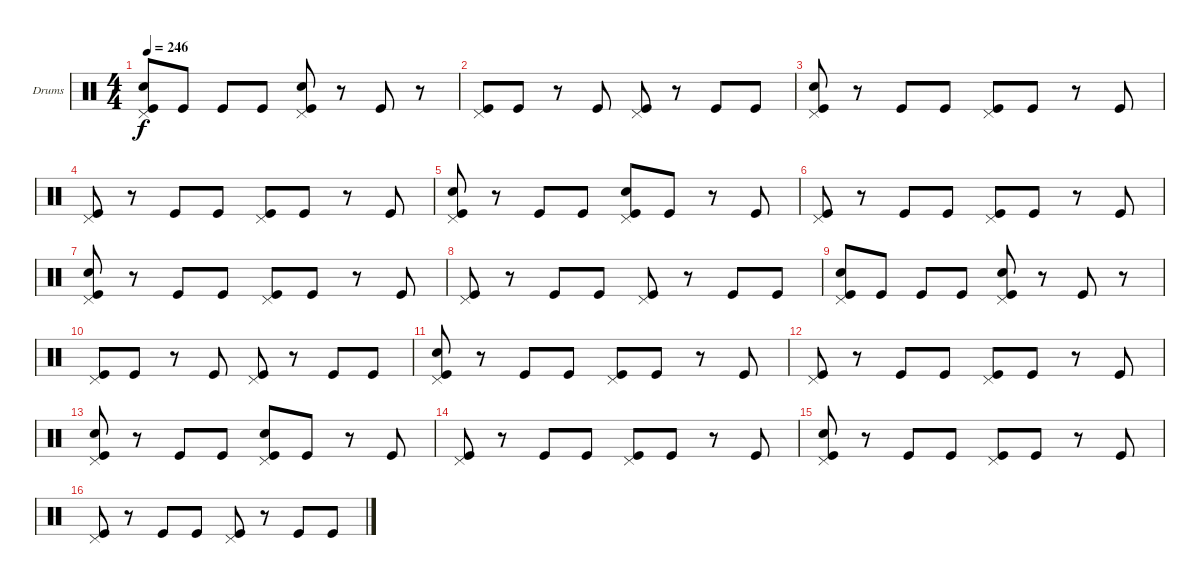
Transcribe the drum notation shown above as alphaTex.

\bracketExtendMode groupsimilarinstruments
\firstSystemTrackNameOrientation horizontal
\otherSystemsTrackNameOrientation horizontal
\track ("Drumkit" "Drums") {instrument percussion}
\staff {score}
\articulation defaults
\ts (4 4)
\tempo 246
\clef neutral
\ks c
("Kick (hit)" "Snare (hit) 2" "Pedal Hi-Hat (hit)").8{dy f} "Kick (hit)".8 "Kick (hit)".8 "Kick (hit)".8 ("Snare (hit) 2" "Pedal Hi-Hat (hit)" "Kick (hit)").8 r.8 "Kick (hit)".8 r.8 |
("Pedal Hi-Hat (hit)" "Kick (hit)").8 "Kick (hit)".8 r.8 "Kick (hit)".8 ("Kick (hit)" "Pedal Hi-Hat (hit)").8 r.8 "Kick (hit)".8 "Kick (hit)".8 |
("Kick (hit)" "Snare (hit) 2" "Pedal Hi-Hat (hit)").8 r.8 "Kick (hit)".8 "Kick (hit)".8 ("Kick (hit)" "Pedal Hi-Hat (hit)").8 "Kick (hit)".8 r.8 "Kick (hit)".8 |
("Pedal Hi-Hat (hit)" "Kick (hit)").8 r.8 "Kick (hit)".8 "Kick (hit)".8 ("Kick (hit)" "Pedal Hi-Hat (hit)").8 "Kick (hit)".8 r.8 "Kick (hit)".8 |
("Kick (hit)" "Snare (hit) 2" "Pedal Hi-Hat (hit)").8 r.8 "Kick (hit)".8 "Kick (hit)".8 ("Snare (hit) 2" "Pedal Hi-Hat (hit)" "Kick (hit)").8 "Kick (hit)".8 r.8 "Kick (hit)".8 |
("Kick (hit)" "Pedal Hi-Hat (hit)").8 r.8 "Kick (hit)".8 "Kick (hit)".8 ("Kick (hit)" "Pedal Hi-Hat (hit)").8 "Kick (hit)".8 r.8 "Kick (hit)".8 |
("Kick (hit)" "Snare (hit) 2" "Pedal Hi-Hat (hit)").8 r.8 "Kick (hit)".8 "Kick (hit)".8 ("Pedal Hi-Hat (hit)" "Kick (hit)").8 "Kick (hit)".8 r.8 "Kick (hit)".8 |
("Pedal Hi-Hat (hit)" "Kick (hit)").8 r.8 "Kick (hit)".8 "Kick (hit)".8 ("Kick (hit)" "Pedal Hi-Hat (hit)").8 r.8 "Kick (hit)".8 "Kick (hit)".8 |
("Kick (hit)" "Snare (hit) 2" "Pedal Hi-Hat (hit)").8 "Kick (hit)".8 "Kick (hit)".8 "Kick (hit)".8 ("Snare (hit) 2" "Pedal Hi-Hat (hit)" "Kick (hit)").8 r.8 "Kick (hit)".8 r.8 |
("Pedal Hi-Hat (hit)" "Kick (hit)").8 "Kick (hit)".8 r.8 "Kick (hit)".8 ("Kick (hit)" "Pedal Hi-Hat (hit)").8 r.8 "Kick (hit)".8 "Kick (hit)".8 |
("Kick (hit)" "Snare (hit) 2" "Pedal Hi-Hat (hit)").8 r.8 "Kick (hit)".8 "Kick (hit)".8 ("Kick (hit)" "Pedal Hi-Hat (hit)").8 "Kick (hit)".8 r.8 "Kick (hit)".8 |
("Pedal Hi-Hat (hit)" "Kick (hit)").8 r.8 "Kick (hit)".8 "Kick (hit)".8 ("Kick (hit)" "Pedal Hi-Hat (hit)").8 "Kick (hit)".8 r.8 "Kick (hit)".8 |
("Kick (hit)" "Snare (hit) 2" "Pedal Hi-Hat (hit)").8 r.8 "Kick (hit)".8 "Kick (hit)".8 ("Snare (hit) 2" "Pedal Hi-Hat (hit)" "Kick (hit)").8 "Kick (hit)".8 r.8 "Kick (hit)".8 |
("Kick (hit)" "Pedal Hi-Hat (hit)").8 r.8 "Kick (hit)".8 "Kick (hit)".8 ("Kick (hit)" "Pedal Hi-Hat (hit)").8 "Kick (hit)".8 r.8 "Kick (hit)".8 |
("Kick (hit)" "Snare (hit) 2" "Pedal Hi-Hat (hit)").8 r.8 "Kick (hit)".8 "Kick (hit)".8 ("Pedal Hi-Hat (hit)" "Kick (hit)").8 "Kick (hit)".8 r.8 "Kick (hit)".8 |
("Pedal Hi-Hat (hit)" "Kick (hit)").8 r.8 "Kick (hit)".8 "Kick (hit)".8 ("Kick (hit)" "Pedal Hi-Hat (hit)").8 r.8 "Kick (hit)".8 "Kick (hit)".8
